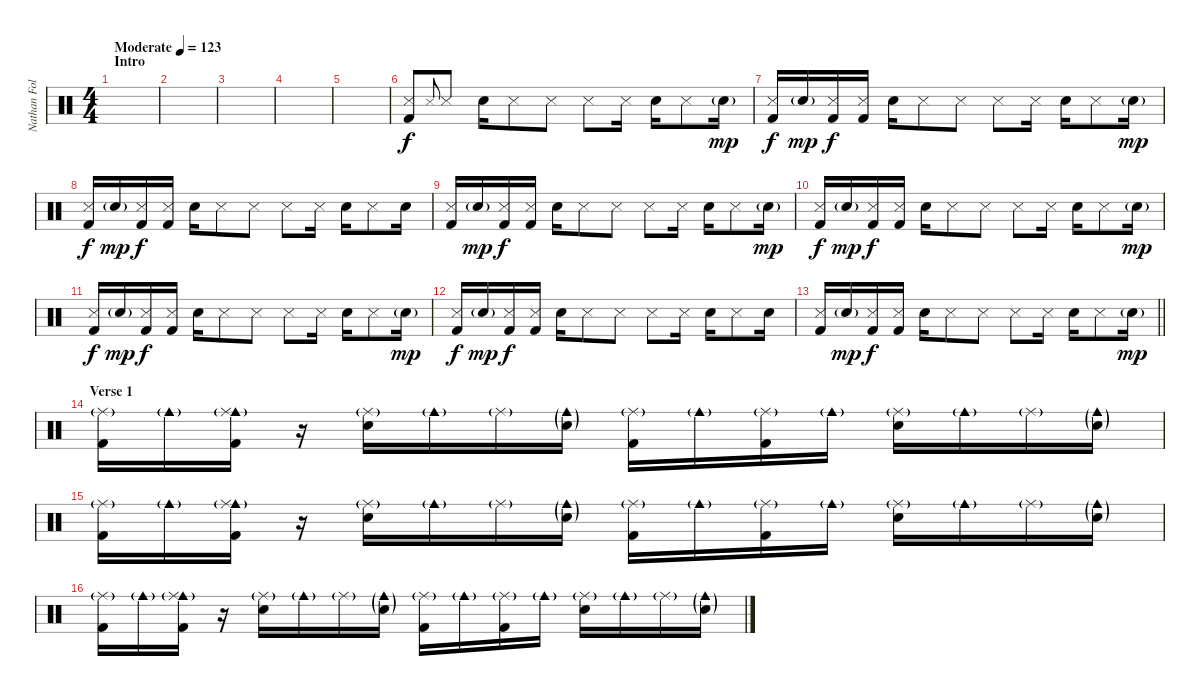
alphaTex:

\track ("Nathan Followill" "Nathan Fol") {instrument percussion}
\staff {score}
\articulation defaults
\ts (4 4)
\section ("" "Intro")
\tempo (123 "Moderate")
\clef neutral
\ks c
|
|
|
|
|
("Snare (side stick) 3" "Kick (hit) 2").8 "Snare (side stick) 3".8{gr onbeat} "Snare (side stick) 3".8 "Electric Snare (hit)".16 "Snare (side stick) 3".8 "Snare (side stick) 3".8 "Snare (side stick) 3".8 "Snare (side stick) 3".16 "Electric Snare (hit)".16 "Snare (side stick) 3".8 "Electric Snare (hit)"{g}.16{dy mp} |
("Snare (side stick) 3" "Kick (hit) 2").16{dy f} "Electric Snare (hit)"{g}.16{dy mp} ("Snare (side stick) 3" "Kick (hit) 2").16{dy f} ("Snare (side stick) 3" "Kick (hit) 2").16 "Electric Snare (hit)".16 "Snare (side stick) 3".8 "Snare (side stick) 3".8 "Snare (side stick) 3".8 "Snare (side stick) 3".16 "Electric Snare (hit)".16 "Snare (side stick) 3".8 "Electric Snare (hit)"{g}.16{dy mp} |
("Snare (side stick) 3" "Kick (hit) 2").16{dy f} "Electric Snare (hit)"{g}.16{dy mp} ("Snare (side stick) 3" "Kick (hit) 2").16{dy f} ("Snare (side stick) 3" "Kick (hit) 2").16 "Electric Snare (hit)".16 "Snare (side stick) 3".8 "Snare (side stick) 3".8 "Snare (side stick) 3".8 "Snare (side stick) 3".16 "Electric Snare (hit)".16 "Snare (side stick) 3".8 "Electric Snare (hit)".16 |
("Snare (side stick) 3" "Kick (hit) 2").16 "Electric Snare (hit)"{g}.16{dy mp} ("Snare (side stick) 3" "Kick (hit) 2").16{dy f} ("Snare (side stick) 3" "Kick (hit) 2").16 "Electric Snare (hit)".16 "Snare (side stick) 3".8 "Snare (side stick) 3".8 "Snare (side stick) 3".8 "Snare (side stick) 3".16 "Electric Snare (hit)".16 "Snare (side stick) 3".8 "Electric Snare (hit)"{g}.16{dy mp} |
("Snare (side stick) 3" "Kick (hit) 2").16{dy f} "Electric Snare (hit)"{g}.16{dy mp} ("Snare (side stick) 3" "Kick (hit) 2").16{dy f} ("Snare (side stick) 3" "Kick (hit) 2").16 "Electric Snare (hit)".16 "Snare (side stick) 3".8 "Snare (side stick) 3".8 "Snare (side stick) 3".8 "Snare (side stick) 3".16 "Electric Snare (hit)".16 "Snare (side stick) 3".8 "Electric Snare (hit)"{g}.16{dy mp} |
("Snare (side stick) 3" "Kick (hit) 2").16{dy f} "Electric Snare (hit)"{g}.16{dy mp} ("Snare (side stick) 3" "Kick (hit) 2").16{dy f} ("Snare (side stick) 3" "Kick (hit) 2").16 "Electric Snare (hit)".16 "Snare (side stick) 3".8 "Snare (side stick) 3".8 "Snare (side stick) 3".8 "Snare (side stick) 3".16 "Electric Snare (hit)".16 "Snare (side stick) 3".8 "Electric Snare (hit)"{g}.16{dy mp} |
("Snare (side stick) 3" "Kick (hit) 2").16{dy f} "Electric Snare (hit)"{g}.16{dy mp} ("Snare (side stick) 3" "Kick (hit) 2").16{dy f} ("Snare (side stick) 3" "Kick (hit) 2").16 "Electric Snare (hit)".16 "Snare (side stick) 3".8 "Snare (side stick) 3".8 "Snare (side stick) 3".8 "Snare (side stick) 3".16 "Electric Snare (hit)".16 "Snare (side stick) 3".8 "Electric Snare (hit)".16 |
\barLineRight lightlight
("Snare (side stick) 3" "Kick (hit) 2").16 "Electric Snare (hit)"{g}.16{dy mp} ("Snare (side stick) 3" "Kick (hit) 2").16{dy f} ("Snare (side stick) 3" "Kick (hit) 2").16 "Electric Snare (hit)".16 "Snare (side stick) 3".8 "Snare (side stick) 3".8 "Snare (side stick) 3".8 "Snare (side stick) 3".16 "Electric Snare (hit)".16 "Snare (side stick) 3".8 "Electric Snare (hit)"{g}.16{dy mp} |
\section ("" "Verse 1")
("Ride (middle)"{g} "Kick (hit) 2").16 "Cowbell medium (hit)"{g}.16 ("Cowbell medium (hit)"{g} "Ride (middle)"{g} "Kick (hit) 2").16 r.16 ("Ride (middle)"{g} "Electric Snare (hit)").16 "Cowbell medium (hit)"{g}.16 "Ride (middle)"{g}.16 ("Cowbell medium (hit)"{g} "Electric Snare (hit)"{g}).16 ("Ride (middle)"{g} "Kick (hit) 2").16 "Cowbell medium (hit)"{g}.16 ("Ride (middle)"{g} "Kick (hit) 2").16 "Cowbell medium (hit)"{g}.16 ("Ride (middle)"{g} "Electric Snare (hit)").16 "Cowbell medium (hit)"{g}.16 "Ride (middle)"{g}.16 ("Cowbell medium (hit)"{g} "Electric Snare (hit)"{g}).16 |
("Ride (middle)"{g} "Kick (hit) 2").16 "Cowbell medium (hit)"{g}.16 ("Cowbell medium (hit)"{g} "Ride (middle)"{g} "Kick (hit) 2").16 r.16 ("Ride (middle)"{g} "Electric Snare (hit)").16 "Cowbell medium (hit)"{g}.16 "Ride (middle)"{g}.16 ("Cowbell medium (hit)"{g} "Electric Snare (hit)"{g}).16 ("Ride (middle)"{g} "Kick (hit) 2").16 "Cowbell medium (hit)"{g}.16 ("Ride (middle)"{g} "Kick (hit) 2").16 "Cowbell medium (hit)"{g}.16 ("Ride (middle)"{g} "Electric Snare (hit)").16 "Cowbell medium (hit)"{g}.16 "Ride (middle)"{g}.16 ("Cowbell medium (hit)"{g} "Electric Snare (hit)"{g}).16 |
("Ride (middle)"{g} "Kick (hit) 2").16 "Cowbell medium (hit)"{g}.16 ("Cowbell medium (hit)"{g} "Ride (middle)"{g} "Kick (hit) 2").16 r.16 ("Ride (middle)"{g} "Electric Snare (hit)").16 "Cowbell medium (hit)"{g}.16 "Ride (middle)"{g}.16 ("Cowbell medium (hit)"{g} "Electric Snare (hit)"{g}).16 ("Ride (middle)"{g} "Kick (hit) 2").16 "Cowbell medium (hit)"{g}.16 ("Ride (middle)"{g} "Kick (hit) 2").16 "Cowbell medium (hit)"{g}.16 ("Ride (middle)"{g} "Electric Snare (hit)").16 "Cowbell medium (hit)"{g}.16 "Ride (middle)"{g}.16 ("Cowbell medium (hit)"{g} "Electric Snare (hit)"{g}).16
